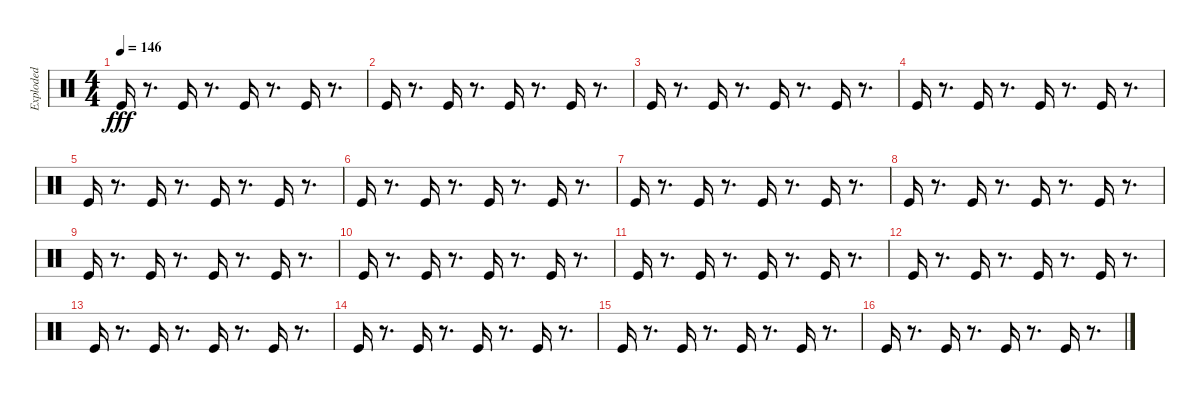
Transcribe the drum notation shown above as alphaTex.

\track ("Exploded" "Exploded") {instrument percussion}
\staff {score}
\articulation defaults
\ts (4 4)
\tempo 146
\clef neutral
\ks c "Kick (hit)".16{dy fff}
r.8{d} "Kick (hit)".16 r.8{d} "Kick (hit)".16 r.8{d} "Kick (hit)".16 r.8{d} |
"Kick (hit)".16 r.8{d} "Kick (hit)".16 r.8{d} "Kick (hit)".16 r.8{d} "Kick (hit)".16 r.8{d} |
"Kick (hit)".16 r.8{d} "Kick (hit)".16 r.8{d} "Kick (hit)".16 r.8{d} "Kick (hit)".16 r.8{d} |
"Kick (hit)".16 r.8{d} "Kick (hit)".16 r.8{d} "Kick (hit)".16 r.8{d} "Kick (hit)".16 r.8{d} |
"Kick (hit)".16 r.8{d} "Kick (hit)".16 r.8{d} "Kick (hit)".16 r.8{d} "Kick (hit)".16 r.8{d} |
"Kick (hit)".16 r.8{d} "Kick (hit)".16 r.8{d} "Kick (hit)".16 r.8{d} "Kick (hit)".16 r.8{d} |
"Kick (hit)".16 r.8{d} "Kick (hit)".16 r.8{d} "Kick (hit)".16 r.8{d} "Kick (hit)".16 r.8{d} |
"Kick (hit)".16 r.8{d} "Kick (hit)".16 r.8{d} "Kick (hit)".16 r.8{d} "Kick (hit)".16 r.8{d} |
"Kick (hit)".16 r.8{d} "Kick (hit)".16 r.8{d} "Kick (hit)".16 r.8{d} "Kick (hit)".16 r.8{d} |
"Kick (hit)".16 r.8{d} "Kick (hit)".16 r.8{d} "Kick (hit)".16 r.8{d} "Kick (hit)".16 r.8{d} |
"Kick (hit)".16 r.8{d} "Kick (hit)".16 r.8{d} "Kick (hit)".16 r.8{d} "Kick (hit)".16 r.8{d} |
"Kick (hit)".16 r.8{d} "Kick (hit)".16 r.8{d} "Kick (hit)".16 r.8{d} "Kick (hit)".16 r.8{d} |
"Kick (hit)".16 r.8{d} "Kick (hit)".16 r.8{d} "Kick (hit)".16 r.8{d} "Kick (hit)".16 r.8{d} |
"Kick (hit)".16 r.8{d} "Kick (hit)".16 r.8{d} "Kick (hit)".16 r.8{d} "Kick (hit)".16 r.8{d} |
"Kick (hit)".16 r.8{d} "Kick (hit)".16 r.8{d} "Kick (hit)".16 r.8{d} "Kick (hit)".16 r.8{d} |
"Kick (hit)".16 r.8{d} "Kick (hit)".16 r.8{d} "Kick (hit)".16 r.8{d} "Kick (hit)".16 r.8{d}
